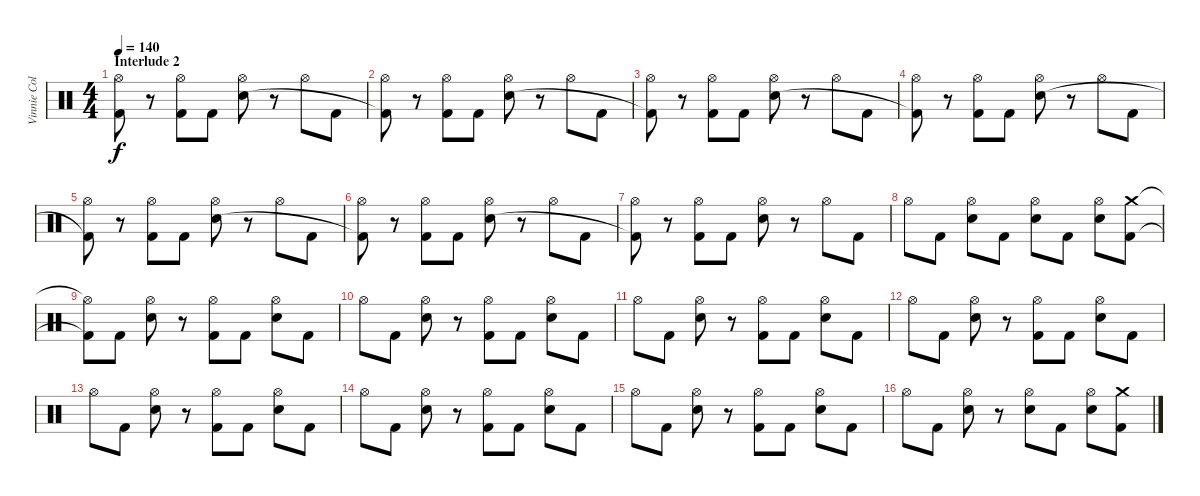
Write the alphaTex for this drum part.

\track ("Vinnie Colaiuta" "Vinnie Col") {instrument percussion}
\staff {score}
\articulation defaults
\ts (4 4)
\section ("" "Interlude 2")
\tempo 140
\clef neutral
\ks c
("Hi-Hat (open)"{t} "Kick (hit) 2"{t}).8{dy f} r.8 ("Hi-Hat (open)" "Kick (hit) 2").8 "Kick (hit) 2".8 ("Hi-Hat (open)" "Snare (hit) 2").8 r.8 "Hi-Hat (open)".8 "Kick (hit) 2".8 |
("Hi-Hat (open)" "Kick (hit) 2"{t}).8 r.8 ("Hi-Hat (open)" "Kick (hit) 2").8 "Kick (hit) 2".8 ("Hi-Hat (open)" "Snare (hit) 2").8 r.8 "Hi-Hat (open)".8 "Kick (hit) 2".8 |
("Hi-Hat (open)" "Kick (hit) 2"{t}).8 r.8 ("Hi-Hat (open)" "Kick (hit) 2").8 "Kick (hit) 2".8 ("Hi-Hat (open)" "Snare (hit) 2").8 r.8 "Hi-Hat (open)".8 "Kick (hit) 2".8 |
("Hi-Hat (open)" "Kick (hit) 2"{t}).8 r.8 ("Hi-Hat (open)" "Kick (hit) 2").8 "Kick (hit) 2".8 ("Hi-Hat (open)" "Snare (hit) 2").8 r.8 "Hi-Hat (open)".8 "Kick (hit) 2".8 |
("Hi-Hat (open)" "Kick (hit) 2"{t}).8 r.8 ("Hi-Hat (open)" "Kick (hit) 2").8 "Kick (hit) 2".8 ("Hi-Hat (open)" "Snare (hit) 2").8 r.8 "Hi-Hat (open)".8 "Kick (hit) 2".8 |
("Hi-Hat (open)" "Kick (hit) 2"{t}).8 r.8 ("Hi-Hat (open)" "Kick (hit) 2").8 "Kick (hit) 2".8 ("Hi-Hat (open)" "Snare (hit) 2").8 r.8 "Hi-Hat (open)".8 "Kick (hit) 2".8 |
("Hi-Hat (open)" "Kick (hit) 2"{t}).8 r.8 ("Hi-Hat (open)" "Kick (hit) 2").8 "Kick (hit) 2".8 ("Hi-Hat (open)" "Snare (hit) 2").8 r.8 "Hi-Hat (open)".8 "Kick (hit) 2".8 |
"Hi-Hat (open)".8 "Kick (hit) 2".8 ("Hi-Hat (open)" "Snare (hit) 2").8 "Kick (hit) 2".8 ("Hi-Hat (open)" "Snare (hit) 2").8 "Kick (hit) 2".8 ("Hi-Hat (open)" "Snare (hit) 2").8 ("Crash medium (hit)" "Kick (hit) 2").8 |
("Hi-Hat (open)"{t} "Kick (hit) 2"{t}).8 "Kick (hit) 2".8 ("Hi-Hat (open)" "Snare (hit) 2").8 r.8 ("Hi-Hat (open)" "Kick (hit) 2").8 "Kick (hit) 2".8 ("Hi-Hat (open)" "Snare (hit) 2").8 "Kick (hit) 2".8 |
"Hi-Hat (open)".8 "Kick (hit) 2".8 ("Hi-Hat (open)" "Snare (hit) 2").8 r.8 ("Hi-Hat (open)" "Kick (hit) 2").8 "Kick (hit) 2".8 ("Hi-Hat (open)" "Snare (hit) 2").8 "Kick (hit) 2".8 |
"Hi-Hat (open)".8 "Kick (hit) 2".8 ("Hi-Hat (open)" "Snare (hit) 2").8 r.8 ("Hi-Hat (open)" "Kick (hit) 2").8 "Kick (hit) 2".8 ("Hi-Hat (open)" "Snare (hit) 2").8 "Kick (hit) 2".8 |
"Hi-Hat (open)".8 "Kick (hit) 2".8 ("Hi-Hat (open)" "Snare (hit) 2").8 r.8 ("Hi-Hat (open)" "Kick (hit) 2").8 "Kick (hit) 2".8 ("Hi-Hat (open)" "Snare (hit) 2").8 "Kick (hit) 2".8 |
"Hi-Hat (open)".8 "Kick (hit) 2".8 ("Hi-Hat (open)" "Snare (hit) 2").8 r.8 ("Hi-Hat (open)" "Kick (hit) 2").8 "Kick (hit) 2".8 ("Hi-Hat (open)" "Snare (hit) 2").8 "Kick (hit) 2".8 |
"Hi-Hat (open)".8 "Kick (hit) 2".8 ("Hi-Hat (open)" "Snare (hit) 2").8 r.8 ("Hi-Hat (open)" "Kick (hit) 2").8 "Kick (hit) 2".8 ("Hi-Hat (open)" "Snare (hit) 2").8 "Kick (hit) 2".8 |
"Hi-Hat (open)".8 "Kick (hit) 2".8 ("Hi-Hat (open)" "Snare (hit) 2").8 r.8 ("Hi-Hat (open)" "Kick (hit) 2").8 "Kick (hit) 2".8 ("Hi-Hat (open)" "Snare (hit) 2").8 "Kick (hit) 2".8 |
"Hi-Hat (open)".8 "Kick (hit) 2".8 ("Hi-Hat (open)" "Snare (hit) 2").8 r.8 ("Hi-Hat (open)" "Snare (hit) 2").8 "Kick (hit) 2".8 ("Hi-Hat (open)" "Snare (hit) 2").8 ("Crash medium (hit)" "Kick (hit) 2").8
